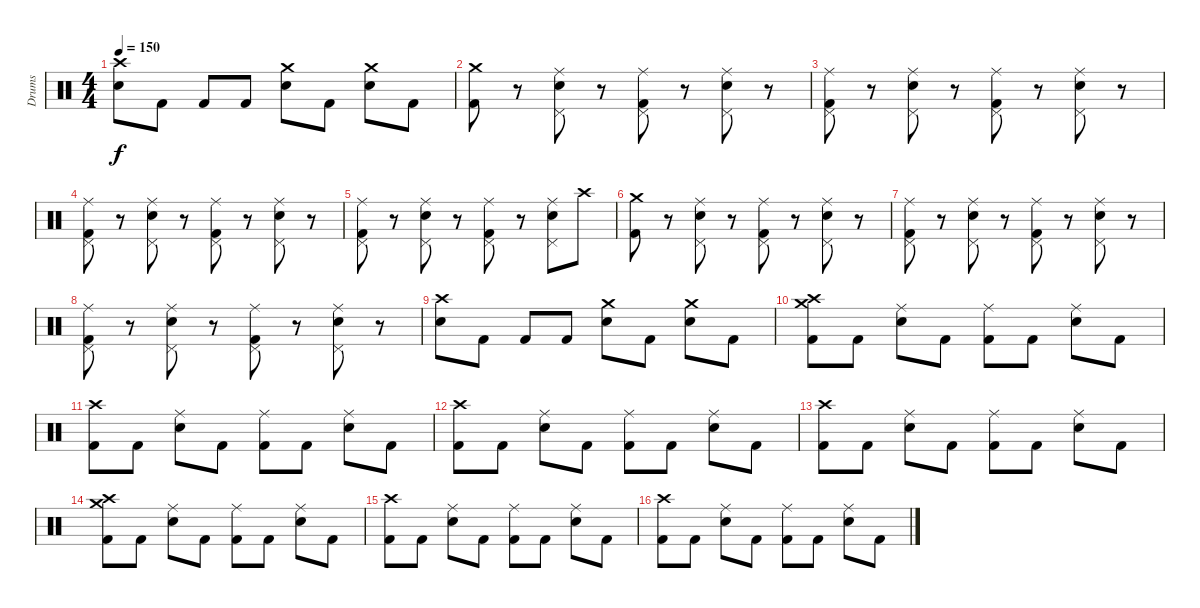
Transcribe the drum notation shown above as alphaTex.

\track ("Drums" "Drums") {instrument percussion}
\staff {score}
\articulation defaults
\ts (4 4)
\tempo 150
\clef neutral
\ks c
("Crash high (hit)" "Snare (hit) 2").8{dy f} "Kick (hit) 2".8 "Kick (hit) 2".8 "Kick (hit) 2".8 ("Crash medium (hit)" "Snare (hit) 2").8 "Kick (hit) 2".8 ("Crash medium (hit)" "Snare (hit) 2").8 "Kick (hit) 2".8 |
("Crash medium (hit)" "Kick (hit) 2").8 r.8 ("Pedal Hi-Hat (hit)" "Ride (middle)" "Snare (hit) 2").8 r.8 ("Pedal Hi-Hat (hit)" "Ride (middle)" "Kick (hit) 2").8 r.8 ("Pedal Hi-Hat (hit)" "Ride (middle)" "Snare (hit) 2").8 r.8 |
("Pedal Hi-Hat (hit)" "Ride (middle)" "Kick (hit) 2").8 r.8 ("Pedal Hi-Hat (hit)" "Ride (middle)" "Snare (hit) 2").8 r.8 ("Pedal Hi-Hat (hit)" "Ride (middle)" "Kick (hit) 2").8 r.8 ("Pedal Hi-Hat (hit)" "Ride (middle)" "Snare (hit) 2").8 r.8 |
("Pedal Hi-Hat (hit)" "Ride (middle)" "Kick (hit) 2").8 r.8 ("Pedal Hi-Hat (hit)" "Ride (middle)" "Snare (hit) 2").8 r.8 ("Pedal Hi-Hat (hit)" "Ride (middle)" "Kick (hit) 2").8 r.8 ("Pedal Hi-Hat (hit)" "Ride (middle)" "Snare (hit) 2").8 r.8 |
("Pedal Hi-Hat (hit)" "Ride (middle)" "Kick (hit) 2").8 r.8 ("Pedal Hi-Hat (hit)" "Ride (middle)" "Snare (hit) 2").8 r.8 ("Pedal Hi-Hat (hit)" "Ride (middle)" "Kick (hit) 2").8 r.8 ("Pedal Hi-Hat (hit)" "Ride (middle)" "Snare (hit) 2").8 "Crash high (hit)".8 |
("Crash medium (hit)" "Kick (hit) 2").8 r.8 ("Pedal Hi-Hat (hit)" "Ride (middle)" "Snare (hit) 2").8 r.8 ("Pedal Hi-Hat (hit)" "Ride (middle)" "Kick (hit) 2").8 r.8 ("Pedal Hi-Hat (hit)" "Ride (middle)" "Snare (hit) 2").8 r.8 |
("Pedal Hi-Hat (hit)" "Ride (middle)" "Kick (hit) 2").8 r.8 ("Pedal Hi-Hat (hit)" "Ride (middle)" "Snare (hit) 2").8 r.8 ("Pedal Hi-Hat (hit)" "Ride (middle)" "Kick (hit) 2").8 r.8 ("Pedal Hi-Hat (hit)" "Ride (middle)" "Snare (hit) 2").8 r.8 |
("Pedal Hi-Hat (hit)" "Ride (middle)" "Kick (hit) 2").8 r.8 ("Pedal Hi-Hat (hit)" "Ride (middle)" "Snare (hit) 2").8 r.8 ("Pedal Hi-Hat (hit)" "Ride (middle)" "Kick (hit) 2").8 r.8 ("Pedal Hi-Hat (hit)" "Ride (middle)" "Snare (hit) 2").8 r.8 |
("Crash high (hit)" "Snare (hit) 2").8 "Kick (hit) 2".8 "Kick (hit) 2".8 "Kick (hit) 2".8 ("Crash medium (hit)" "Snare (hit) 2").8 "Kick (hit) 2".8 ("Crash medium (hit)" "Snare (hit) 2").8 "Kick (hit) 2".8 |
("Crash high (hit)" "Crash medium (hit)" "Kick (hit) 2").8 "Kick (hit) 2".8 ("Ride (middle)" "Snare (hit) 2").8 "Kick (hit) 2".8 ("Ride (middle)" "Kick (hit) 2").8 "Kick (hit) 2".8 ("Ride (middle)" "Snare (hit) 2").8 "Kick (hit) 2".8 |
("Crash high (hit)" "Kick (hit) 2").8 "Kick (hit) 2".8 ("Ride (middle)" "Snare (hit) 2").8 "Kick (hit) 2".8 ("Ride (middle)" "Kick (hit) 2").8 "Kick (hit) 2".8 ("Ride (middle)" "Snare (hit) 2").8 "Kick (hit) 2".8 |
("Crash high (hit)" "Kick (hit) 2").8 "Kick (hit) 2".8 ("Ride (middle)" "Snare (hit) 2").8 "Kick (hit) 2".8 ("Ride (middle)" "Kick (hit) 2").8 "Kick (hit) 2".8 ("Ride (middle)" "Snare (hit) 2").8 "Kick (hit) 2".8 |
("Crash high (hit)" "Kick (hit) 2").8 "Kick (hit) 2".8 ("Ride (middle)" "Snare (hit) 2").8 "Kick (hit) 2".8 ("Ride (middle)" "Kick (hit) 2").8 "Kick (hit) 2".8 ("Ride (middle)" "Snare (hit) 2").8 "Kick (hit) 2".8 |
("Crash high (hit)" "Crash medium (hit)" "Kick (hit) 2").8 "Kick (hit) 2".8 ("Ride (middle)" "Snare (hit) 2").8 "Kick (hit) 2".8 ("Ride (middle)" "Kick (hit) 2").8 "Kick (hit) 2".8 ("Ride (middle)" "Snare (hit) 2").8 "Kick (hit) 2".8 |
("Crash high (hit)" "Kick (hit) 2").8 "Kick (hit) 2".8 ("Ride (middle)" "Snare (hit) 2").8 "Kick (hit) 2".8 ("Ride (middle)" "Kick (hit) 2").8 "Kick (hit) 2".8 ("Ride (middle)" "Snare (hit) 2").8 "Kick (hit) 2".8 |
("Crash high (hit)" "Kick (hit) 2").8 "Kick (hit) 2".8 ("Ride (middle)" "Snare (hit) 2").8 "Kick (hit) 2".8 ("Ride (middle)" "Kick (hit) 2").8 "Kick (hit) 2".8 ("Ride (middle)" "Snare (hit) 2").8 "Kick (hit) 2".8
